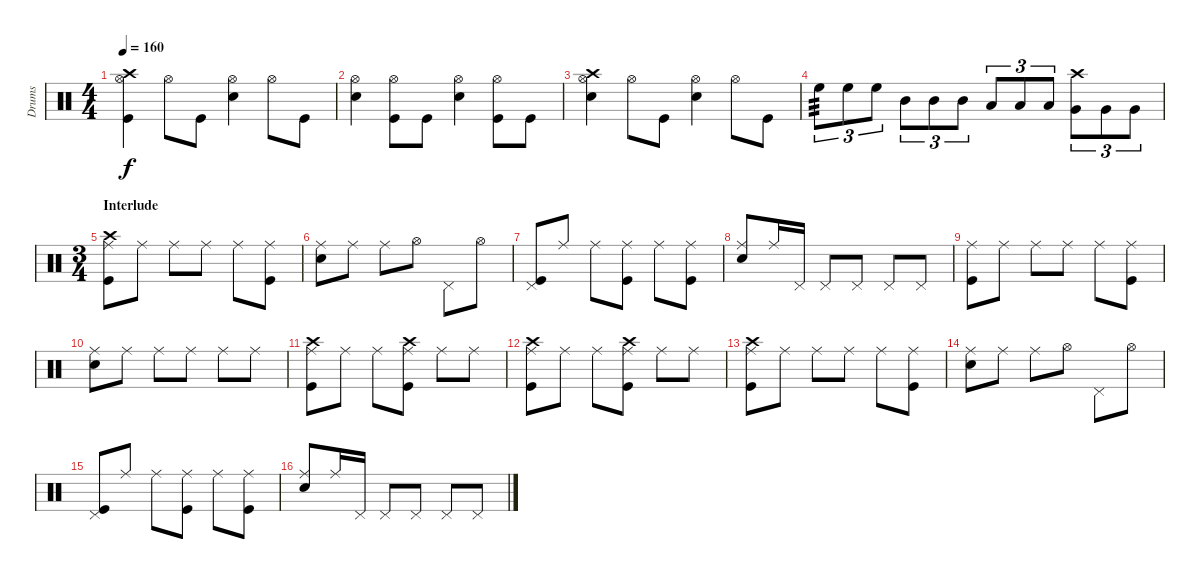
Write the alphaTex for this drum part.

\track ("Drums" "Drums") {instrument percussion}
\staff {score}
\articulation defaults
\ts (4 4)
\tempo 160
\clef neutral
\ks c
("Hi-Hat (open)" "Crash high (hit)" "Kick (hit)").4{dy f} "Hi-Hat (open)".8 "Kick (hit)".8 ("Hi-Hat (open)" "Snare (hit) 2").4 "Hi-Hat (open)".8 "Kick (hit)".8 |
("Hi-Hat (open)" "Snare (hit) 2").4 ("Hi-Hat (open)" "Kick (hit)").8 "Kick (hit)".8 ("Hi-Hat (open)" "Snare (hit) 2").4 ("Hi-Hat (open)" "Kick (hit)").8 "Kick (hit)".8 |
("Hi-Hat (open)" "Crash high (hit)" "Snare (hit) 2").4 "Hi-Hat (open)".8 "Kick (hit)".8 ("Hi-Hat (open)" "Snare (hit) 2").4 "Hi-Hat (open)".8 "Kick (hit)".8 |
"High Floor Tom (hit)".8{tu (3 2) tp 3} "High Floor Tom (hit)".8{tu (3 2)} "High Floor Tom (hit)".8{tu (3 2)} "Mid Tom (hit)".8{tu (3 2)} "Mid Tom (hit)".8{tu (3 2)} "Mid Tom (hit)".8{tu (3 2)} "Low Tom (hit)".8{tu (3 2)} "Low Tom (hit)".8{tu (3 2)} "Low Tom (hit)".8{tu (3 2)} ("Crash high (hit)" "Very Low Tom (hit)").8{tu (3 2)} "Very Low Tom (hit)".8{tu (3 2)} "Very Low Tom (hit)".8{tu (3 2)} |
\ts (3 4)
\section ("" "Interlude")
("Ride (middle)" "Crash high (hit)" "Kick (hit)").8 "Ride (middle)".8 "Ride (middle)".8 "Ride (middle)".8 "Ride (middle)".8 ("Ride (middle)" "Kick (hit)").8 |
("Ride (middle)" "Snare (hit) 2").8 "Ride (middle)".8 "Ride (middle)".8 "Hi-Hat (open)".8 "Pedal Hi-Hat (hit)".8 "Hi-Hat (open)".8 |
("Pedal Hi-Hat (hit)" "Kick (hit)").8 "Ride (middle)".8 "Ride (middle)".8 ("Ride (middle)" "Kick (hit)").8 "Ride (middle)".8 ("Ride (middle)" "Kick (hit)").8 |
("Ride (middle)" "Snare (hit) 2").8 "Ride (middle)".16 "Pedal Hi-Hat (hit)".16 "Pedal Hi-Hat (hit)".8 "Pedal Hi-Hat (hit)".8 "Pedal Hi-Hat (hit)".8 "Pedal Hi-Hat (hit)".8 |
("Ride (middle)" "Kick (hit)").8 "Ride (middle)".8 "Ride (middle)".8 "Ride (middle)".8 "Ride (middle)".8 ("Ride (middle)" "Kick (hit)").8 |
("Ride (middle)" "Snare (hit) 2").8 "Ride (middle)".8 "Ride (middle)".8 "Ride (middle)".8 "Ride (middle)".8 "Ride (middle)".8 |
("Ride (middle)" "Crash high (hit)" "Kick (hit)").8 "Ride (middle)".8 "Ride (middle)".8 ("Ride (middle)" "Crash high (hit)" "Kick (hit)").8 "Ride (middle)".8 "Ride (middle)".8 |
("Ride (middle)" "Crash high (hit)" "Kick (hit)").8 "Ride (middle)".8 "Ride (middle)".8 ("Ride (middle)" "Crash high (hit)" "Kick (hit)").8 "Ride (middle)".8 "Ride (middle)".8 |
("Ride (middle)" "Crash high (hit)" "Kick (hit)").8 "Ride (middle)".8 "Ride (middle)".8 "Ride (middle)".8 "Ride (middle)".8 ("Ride (middle)" "Kick (hit)").8 |
("Ride (middle)" "Snare (hit) 2").8 "Ride (middle)".8 "Ride (middle)".8 "Hi-Hat (open)".8 "Pedal Hi-Hat (hit)".8 "Hi-Hat (open)".8 |
("Pedal Hi-Hat (hit)" "Kick (hit)").8 "Ride (middle)".8 "Ride (middle)".8 ("Ride (middle)" "Kick (hit)").8 "Ride (middle)".8 ("Ride (middle)" "Kick (hit)").8 |
("Ride (middle)" "Snare (hit) 2").8 "Ride (middle)".16 "Pedal Hi-Hat (hit)".16 "Pedal Hi-Hat (hit)".8 "Pedal Hi-Hat (hit)".8 "Pedal Hi-Hat (hit)".8 "Pedal Hi-Hat (hit)".8
